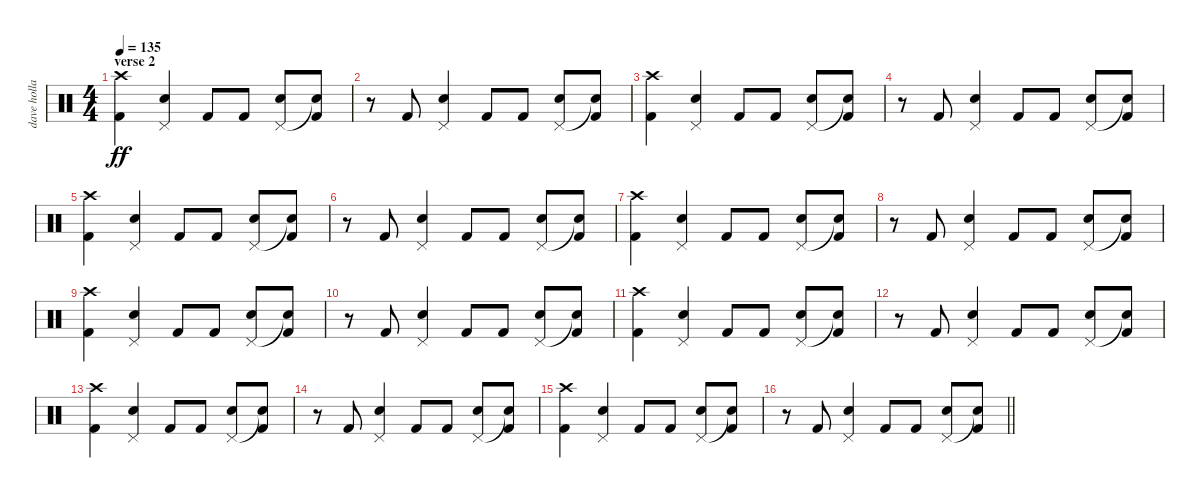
\track ("dave holland" "dave holla") {instrument percussion}
\staff {score}
\articulation defaults
\ts (4 4)
\section ("" "verse 2")
\tempo 135
\clef neutral
\ks c
("Crash high (hit)" "Kick (hit) 2").4{dy ff} ("Pedal Hi-Hat (hit)" "Electric Snare (hit)").4 "Kick (hit) 2".8 "Kick (hit) 2".8 ("Pedal Hi-Hat (hit)" "Electric Snare (hit)").8 ("Snare (hit)"{t} "Kick (hit) 2").8 |
r.8 "Kick (hit) 2".8 ("Pedal Hi-Hat (hit)" "Electric Snare (hit)").4 "Kick (hit) 2".8 "Kick (hit) 2".8 ("Pedal Hi-Hat (hit)" "Electric Snare (hit)").8 ("Snare (hit)"{t} "Kick (hit) 2").8 |
("Crash high (hit)" "Kick (hit) 2").4 ("Pedal Hi-Hat (hit)" "Electric Snare (hit)").4 "Kick (hit) 2".8 "Kick (hit) 2".8 ("Pedal Hi-Hat (hit)" "Electric Snare (hit)").8 ("Snare (hit)"{t} "Kick (hit) 2").8 |
r.8 "Kick (hit) 2".8 ("Pedal Hi-Hat (hit)" "Electric Snare (hit)").4 "Kick (hit) 2".8 "Kick (hit) 2".8 ("Pedal Hi-Hat (hit)" "Electric Snare (hit)").8 ("Snare (hit)"{t} "Kick (hit) 2").8 |
("Crash high (hit)" "Kick (hit) 2").4 ("Pedal Hi-Hat (hit)" "Electric Snare (hit)").4 "Kick (hit) 2".8 "Kick (hit) 2".8 ("Pedal Hi-Hat (hit)" "Electric Snare (hit)").8 ("Snare (hit)"{t} "Kick (hit) 2").8 |
r.8 "Kick (hit) 2".8 ("Pedal Hi-Hat (hit)" "Electric Snare (hit)").4 "Kick (hit) 2".8 "Kick (hit) 2".8 ("Pedal Hi-Hat (hit)" "Electric Snare (hit)").8 ("Snare (hit)"{t} "Kick (hit) 2").8 |
("Crash high (hit)" "Kick (hit) 2").4 ("Pedal Hi-Hat (hit)" "Electric Snare (hit)").4 "Kick (hit) 2".8 "Kick (hit) 2".8 ("Pedal Hi-Hat (hit)" "Electric Snare (hit)").8 ("Snare (hit)"{t} "Kick (hit) 2").8 |
r.8 "Kick (hit) 2".8 ("Pedal Hi-Hat (hit)" "Electric Snare (hit)").4 "Kick (hit) 2".8 "Kick (hit) 2".8 ("Pedal Hi-Hat (hit)" "Electric Snare (hit)").8 ("Snare (hit)"{t} "Kick (hit) 2").8 |
("Crash high (hit)" "Kick (hit) 2").4 ("Pedal Hi-Hat (hit)" "Electric Snare (hit)").4 "Kick (hit) 2".8 "Kick (hit) 2".8 ("Pedal Hi-Hat (hit)" "Electric Snare (hit)").8 ("Snare (hit)"{t} "Kick (hit) 2").8 |
r.8 "Kick (hit) 2".8 ("Pedal Hi-Hat (hit)" "Electric Snare (hit)").4 "Kick (hit) 2".8 "Kick (hit) 2".8 ("Pedal Hi-Hat (hit)" "Electric Snare (hit)").8 ("Snare (hit)"{t} "Kick (hit) 2").8 |
("Crash high (hit)" "Kick (hit) 2").4 ("Pedal Hi-Hat (hit)" "Electric Snare (hit)").4 "Kick (hit) 2".8 "Kick (hit) 2".8 ("Pedal Hi-Hat (hit)" "Electric Snare (hit)").8 ("Snare (hit)"{t} "Kick (hit) 2").8 |
r.8 "Kick (hit) 2".8 ("Pedal Hi-Hat (hit)" "Electric Snare (hit)").4 "Kick (hit) 2".8 "Kick (hit) 2".8 ("Pedal Hi-Hat (hit)" "Electric Snare (hit)").8 ("Snare (hit)"{t} "Kick (hit) 2").8 |
("Crash high (hit)" "Kick (hit) 2").4 ("Pedal Hi-Hat (hit)" "Electric Snare (hit)").4 "Kick (hit) 2".8 "Kick (hit) 2".8 ("Pedal Hi-Hat (hit)" "Electric Snare (hit)").8 ("Snare (hit)"{t} "Kick (hit) 2").8 |
r.8 "Kick (hit) 2".8 ("Pedal Hi-Hat (hit)" "Electric Snare (hit)").4 "Kick (hit) 2".8 "Kick (hit) 2".8 ("Pedal Hi-Hat (hit)" "Electric Snare (hit)").8 ("Snare (hit)"{t} "Kick (hit) 2").8 |
("Crash high (hit)" "Kick (hit) 2").4 ("Pedal Hi-Hat (hit)" "Electric Snare (hit)").4 "Kick (hit) 2".8 "Kick (hit) 2".8 ("Pedal Hi-Hat (hit)" "Electric Snare (hit)").8 ("Snare (hit)"{t} "Kick (hit) 2").8 |
\barLineRight lightlight
r.8 "Kick (hit) 2".8 ("Pedal Hi-Hat (hit)" "Electric Snare (hit)").4 "Kick (hit) 2".8 "Kick (hit) 2".8 ("Pedal Hi-Hat (hit)" "Electric Snare (hit)").8 ("Snare (hit)"{t} "Kick (hit) 2").8
